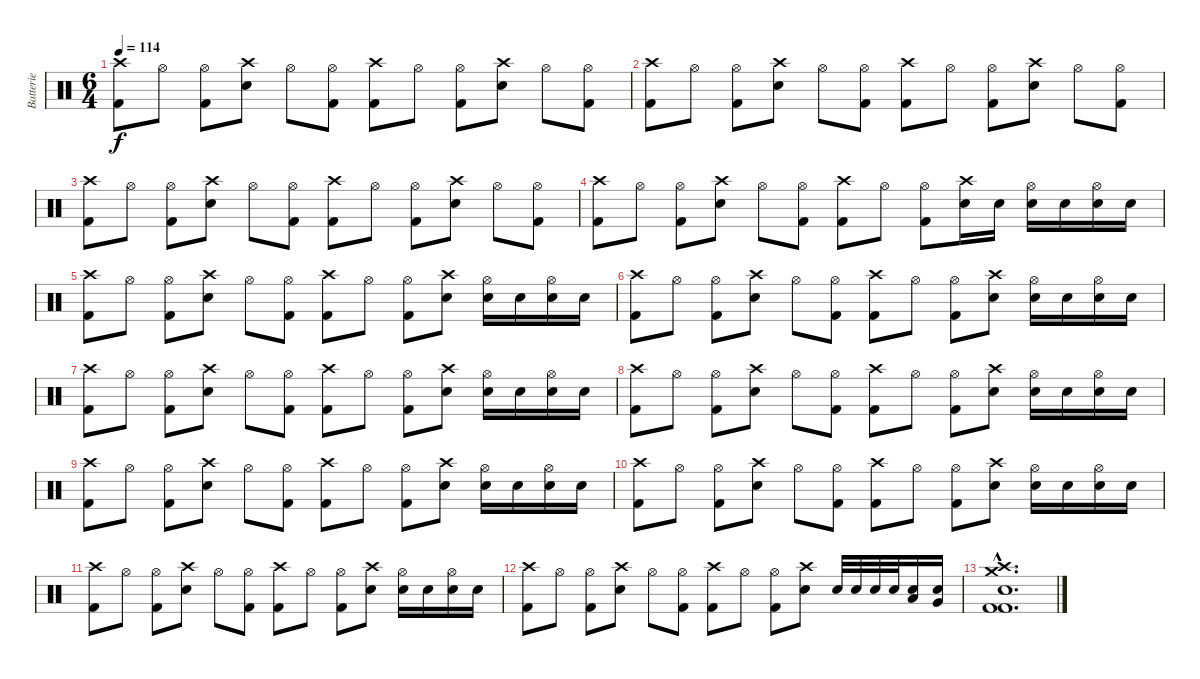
\track ("Batterie" "Batterie") {instrument percussion}
\staff {score}
\articulation defaults
\ts (6 4)
\tempo 114
\clef neutral
\ks c
("Crash high (hit)" "Kick (hit) 2").8{dy f} "Hi-Hat (open)".8 ("Hi-Hat (open)" "Kick (hit) 2").8 ("Crash high (hit)" "Electric Snare (hit)").8 "Hi-Hat (open)".8 ("Hi-Hat (open)" "Kick (hit) 2").8 ("Crash high (hit)" "Kick (hit) 2").8 "Hi-Hat (open)".8 ("Hi-Hat (open)" "Kick (hit) 2").8 ("Crash high (hit)" "Electric Snare (hit)").8 "Hi-Hat (open)".8 ("Hi-Hat (open)" "Kick (hit) 2").8 |
("Crash high (hit)" "Kick (hit) 2").8 "Hi-Hat (open)".8 ("Hi-Hat (open)" "Kick (hit) 2").8 ("Crash high (hit)" "Electric Snare (hit)").8 "Hi-Hat (open)".8 ("Hi-Hat (open)" "Kick (hit) 2").8 ("Crash high (hit)" "Kick (hit) 2").8 "Hi-Hat (open)".8 ("Hi-Hat (open)" "Kick (hit) 2").8 ("Crash high (hit)" "Electric Snare (hit)").8 "Hi-Hat (open)".8 ("Hi-Hat (open)" "Kick (hit) 2").8 |
("Crash high (hit)" "Kick (hit) 2").8 "Hi-Hat (open)".8 ("Hi-Hat (open)" "Kick (hit) 2").8 ("Crash high (hit)" "Electric Snare (hit)").8 "Hi-Hat (open)".8 ("Hi-Hat (open)" "Kick (hit) 2").8 ("Crash high (hit)" "Kick (hit) 2").8 "Hi-Hat (open)".8 ("Hi-Hat (open)" "Kick (hit) 2").8 ("Crash high (hit)" "Electric Snare (hit)").8 "Hi-Hat (open)".8 ("Hi-Hat (open)" "Kick (hit) 2").8 |
("Crash high (hit)" "Kick (hit) 2").8 "Hi-Hat (open)".8 ("Hi-Hat (open)" "Kick (hit) 2").8 ("Crash high (hit)" "Electric Snare (hit)").8 "Hi-Hat (open)".8 ("Hi-Hat (open)" "Kick (hit) 2").8 ("Crash high (hit)" "Kick (hit) 2").8 "Hi-Hat (open)".8 ("Hi-Hat (open)" "Kick (hit) 2").8 ("Crash high (hit)" "Electric Snare (hit)").16 "Electric Snare (hit)".16 ("Hi-Hat (open)" "Electric Snare (hit)").16 "Electric Snare (hit)".16 ("Hi-Hat (open)" "Electric Snare (hit)").16 "Electric Snare (hit)".16 |
("Crash high (hit)" "Kick (hit) 2").8 "Hi-Hat (open)".8 ("Hi-Hat (open)" "Kick (hit) 2").8 ("Crash high (hit)" "Electric Snare (hit)").8 "Hi-Hat (open)".8 ("Hi-Hat (open)" "Kick (hit) 2").8 ("Crash high (hit)" "Kick (hit) 2").8 "Hi-Hat (open)".8 ("Hi-Hat (open)" "Kick (hit) 2").8 ("Crash high (hit)" "Electric Snare (hit)").8 ("Hi-Hat (open)" "Electric Snare (hit)").16 "Electric Snare (hit)".16 ("Hi-Hat (open)" "Electric Snare (hit)").16 "Electric Snare (hit)".16 |
("Crash high (hit)" "Kick (hit) 2").8 "Hi-Hat (open)".8 ("Hi-Hat (open)" "Kick (hit) 2").8 ("Crash high (hit)" "Electric Snare (hit)").8 "Hi-Hat (open)".8 ("Hi-Hat (open)" "Kick (hit) 2").8 ("Crash high (hit)" "Kick (hit) 2").8 "Hi-Hat (open)".8 ("Hi-Hat (open)" "Kick (hit) 2").8 ("Crash high (hit)" "Electric Snare (hit)").8 ("Hi-Hat (open)" "Electric Snare (hit)").16 "Electric Snare (hit)".16 ("Hi-Hat (open)" "Electric Snare (hit)").16 "Electric Snare (hit)".16 |
("Crash high (hit)" "Kick (hit) 2").8 "Hi-Hat (open)".8 ("Hi-Hat (open)" "Kick (hit) 2").8 ("Crash high (hit)" "Electric Snare (hit)").8 "Hi-Hat (open)".8 ("Hi-Hat (open)" "Kick (hit) 2").8 ("Crash high (hit)" "Kick (hit) 2").8 "Hi-Hat (open)".8 ("Hi-Hat (open)" "Kick (hit) 2").8 ("Crash high (hit)" "Electric Snare (hit)").8 ("Hi-Hat (open)" "Electric Snare (hit)").16 "Electric Snare (hit)".16 ("Hi-Hat (open)" "Electric Snare (hit)").16 "Electric Snare (hit)".16 |
("Crash high (hit)" "Kick (hit) 2").8 "Hi-Hat (open)".8 ("Hi-Hat (open)" "Kick (hit) 2").8 ("Crash high (hit)" "Electric Snare (hit)").8 "Hi-Hat (open)".8 ("Hi-Hat (open)" "Kick (hit) 2").8 ("Crash high (hit)" "Kick (hit) 2").8 "Hi-Hat (open)".8 ("Hi-Hat (open)" "Kick (hit) 2").8 ("Crash high (hit)" "Electric Snare (hit)").8 ("Hi-Hat (open)" "Electric Snare (hit)").16 "Electric Snare (hit)".16 ("Hi-Hat (open)" "Electric Snare (hit)").16 "Electric Snare (hit)".16 |
("Crash high (hit)" "Kick (hit) 2").8 "Hi-Hat (open)".8 ("Hi-Hat (open)" "Kick (hit) 2").8 ("Crash high (hit)" "Electric Snare (hit)").8 "Hi-Hat (open)".8 ("Hi-Hat (open)" "Kick (hit) 2").8 ("Crash high (hit)" "Kick (hit) 2").8 "Hi-Hat (open)".8 ("Hi-Hat (open)" "Kick (hit) 2").8 ("Crash high (hit)" "Electric Snare (hit)").8 ("Hi-Hat (open)" "Electric Snare (hit)").16 "Electric Snare (hit)".16 ("Hi-Hat (open)" "Electric Snare (hit)").16 "Electric Snare (hit)".16 |
("Crash high (hit)" "Kick (hit) 2").8 "Hi-Hat (open)".8 ("Hi-Hat (open)" "Kick (hit) 2").8 ("Crash high (hit)" "Electric Snare (hit)").8 "Hi-Hat (open)".8 ("Hi-Hat (open)" "Kick (hit) 2").8 ("Crash high (hit)" "Kick (hit) 2").8 "Hi-Hat (open)".8 ("Hi-Hat (open)" "Kick (hit) 2").8 ("Crash high (hit)" "Electric Snare (hit)").8 ("Hi-Hat (open)" "Electric Snare (hit)").16 "Electric Snare (hit)".16 ("Hi-Hat (open)" "Electric Snare (hit)").16 "Electric Snare (hit)".16 |
("Crash high (hit)" "Kick (hit) 2").8 "Hi-Hat (open)".8 ("Hi-Hat (open)" "Kick (hit) 2").8 ("Crash high (hit)" "Electric Snare (hit)").8 "Hi-Hat (open)".8 ("Hi-Hat (open)" "Kick (hit) 2").8 ("Crash high (hit)" "Kick (hit) 2").8 "Hi-Hat (open)".8 ("Hi-Hat (open)" "Kick (hit) 2").8 ("Crash high (hit)" "Electric Snare (hit)").8 ("Hi-Hat (open)" "Electric Snare (hit)").16 "Electric Snare (hit)".16 ("Hi-Hat (open)" "Electric Snare (hit)").16 "Electric Snare (hit)".16 |
("Crash high (hit)" "Kick (hit) 2").8 "Hi-Hat (open)".8 ("Hi-Hat (open)" "Kick (hit) 2").8 ("Crash high (hit)" "Electric Snare (hit)").8 "Hi-Hat (open)".8 ("Hi-Hat (open)" "Kick (hit) 2").8 ("Crash high (hit)" "Kick (hit) 2").8 "Hi-Hat (open)".8 ("Hi-Hat (open)" "Kick (hit) 2").8 ("Crash high (hit)" "Electric Snare (hit)").8 "Electric Snare (hit)".32 "Electric Snare (hit)".32 "Electric Snare (hit)".32 "Electric Snare (hit)".32 ("Low Tom (hit)" "Electric Snare (hit)").16 ("Very Low Tom (hit)" "Electric Snare (hit)").16 |
("Crash high (hit)"{hac} "Crash medium (hit)"{hac} "Electric Snare (hit)"{hac} "Kick (hit) 2"{hac} "Kick (hit) 2"{hac}).1{d}
